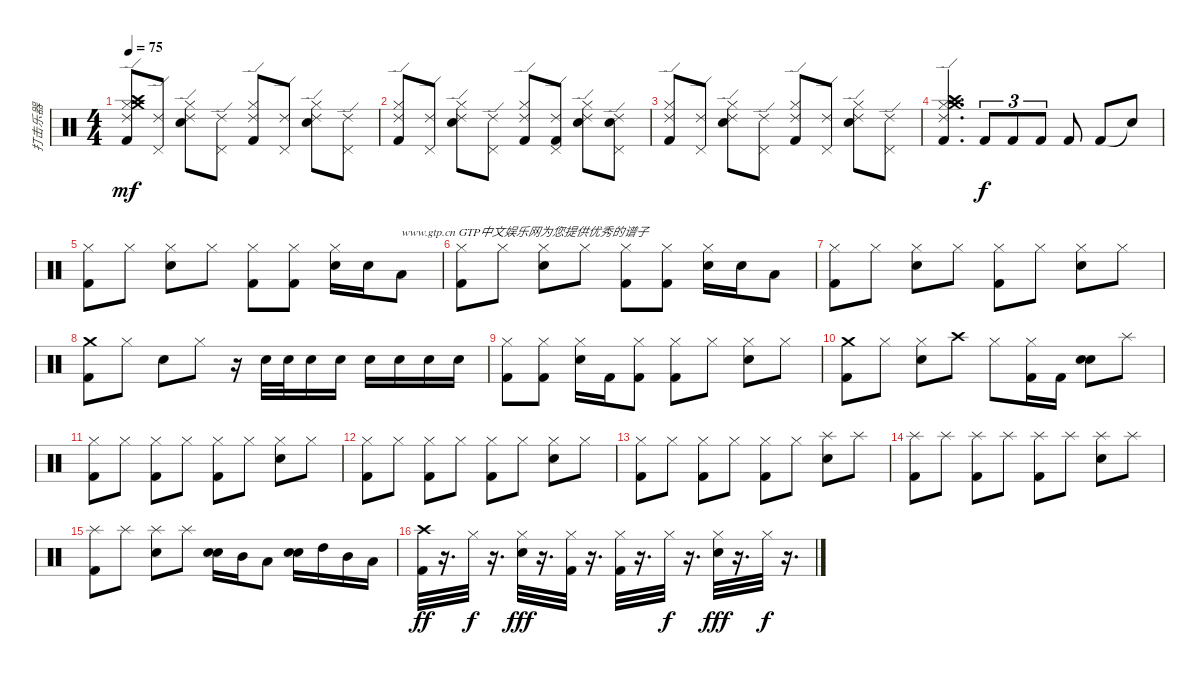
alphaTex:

\track ("打击乐器" "打击乐器") {instrument percussion}
\staff {score}
\articulation defaults
\ts (4 4)
\tempo 75
\clef neutral
\ks c
("Kick (hit) 2" "Hi-Hat (closed)" "Crash medium (hit)" "Crash high (hit)" "Ride (edge) 2").8{dy mf} ("Pedal Hi-Hat (hit)" "Ride (edge) 2").8 ("Electric Snare (hit)" "Hi-Hat (closed)" "Ride (edge) 2").8 ("Pedal Hi-Hat (hit)" "Ride (edge) 2").8 ("Kick (hit) 2" "Hi-Hat (closed)" "Ride (edge) 2").8 ("Pedal Hi-Hat (hit)" "Ride (edge) 2").8 ("Electric Snare (hit)" "Hi-Hat (closed)" "Ride (edge) 2").8 ("Pedal Hi-Hat (hit)" "Ride (edge) 2").8 |
("Kick (hit) 2" "Hi-Hat (closed)" "Ride (edge) 2").8 ("Pedal Hi-Hat (hit)" "Ride (edge) 2").8 ("Electric Snare (hit)" "Hi-Hat (closed)" "Ride (edge) 2").8 ("Pedal Hi-Hat (hit)" "Ride (edge) 2").8 ("Kick (hit) 2" "Hi-Hat (closed)" "Ride (edge) 2").8 ("Kick (hit) 2" "Pedal Hi-Hat (hit)" "Ride (edge) 2").8 ("Electric Snare (hit)" "Hi-Hat (closed)" "Ride (edge) 2").8 ("Electric Snare (hit)" "Pedal Hi-Hat (hit)" "Ride (edge) 2").8 |
("Kick (hit) 2" "Hi-Hat (closed)" "Ride (edge) 2").8 ("Pedal Hi-Hat (hit)" "Ride (edge) 2").8 ("Electric Snare (hit)" "Hi-Hat (closed)" "Ride (edge) 2").8 ("Pedal Hi-Hat (hit)" "Ride (edge) 2").8 ("Kick (hit) 2" "Hi-Hat (closed)" "Ride (edge) 2").8 ("Pedal Hi-Hat (hit)" "Ride (edge) 2").8 ("Electric Snare (hit)" "Hi-Hat (closed)" "Ride (edge) 2").8 ("Pedal Hi-Hat (hit)" "Ride (edge) 2").8 |
("Kick (hit) 2" "Hi-Hat (closed)" "Crash medium (hit)" "Crash high (hit)" "Ride (edge) 2").4{d} "Kick (hit) 2".8{tu (3 2) dy f} "Kick (hit) 2".8{tu (3 2)} "Kick (hit) 2".8{tu (3 2)} "Kick (hit) 2".8 "Kick (hit) 2".8 "Snare (hit)"{t}.8 |
("Hi-Hat (closed)" "Kick (hit) 2").8 "Hi-Hat (closed)".8 ("Hi-Hat (closed)" "Snare (hit) 2").8 "Hi-Hat (closed)".8 ("Hi-Hat (closed)" "Kick (hit) 2").8 ("Hi-Hat (closed)" "Kick (hit) 2").8 ("Hi-Hat (closed)" "Snare (hit) 2").16 "Snare (hit) 2".16 "Low Tom (hit)".8{txt "www.gtp.cn GTP中文娱乐网为您提供优秀的谱子"} |
("Hi-Hat (closed)" "Kick (hit) 2").8 "Hi-Hat (closed)".8 ("Hi-Hat (closed)" "Snare (hit) 2").8 "Hi-Hat (closed)".8 ("Hi-Hat (closed)" "Kick (hit) 2").8 ("Hi-Hat (closed)" "Kick (hit) 2").8 ("Hi-Hat (closed)" "Snare (hit) 2").16 "Snare (hit) 2".16 "Low Tom (hit)".8 |
("Hi-Hat (closed)" "Kick (hit) 2").8 "Hi-Hat (closed)".8 ("Hi-Hat (closed)" "Snare (hit) 2").8 "Hi-Hat (closed)".8 ("Hi-Hat (closed)" "Kick (hit) 2").8 "Hi-Hat (closed)".8 ("Hi-Hat (closed)" "Snare (hit) 2").8 "Hi-Hat (closed)".8 |
("Crash medium (hit)" "Kick (hit) 2").8 "Hi-Hat (closed)".8 "Snare (hit) 2".8 "Hi-Hat (closed)".8 r.16 "Snare (hit) 2".32 "Snare (hit) 2".32 "Snare (hit) 2".16 "Snare (hit) 2".16 "Snare (hit) 2".16 "Snare (hit) 2".16 "Snare (hit) 2".16 "Snare (hit) 2".16 |
("Hi-Hat (closed)" "Kick (hit) 2").8 ("Hi-Hat (closed)" "Kick (hit) 2").8 ("Hi-Hat (closed)" "Snare (hit) 2").16 "Kick (hit) 2".16 ("Hi-Hat (closed)" "Kick (hit) 2").8 ("Hi-Hat (closed)" "Kick (hit) 2").8 "Hi-Hat (closed)".8 ("Hi-Hat (closed)" "Snare (hit) 2").8 "Hi-Hat (closed)".8 |
("Crash medium (hit)" "Kick (hit) 2").8 "Hi-Hat (closed)".8 ("Hi-Hat (closed)" "Snare (hit) 2").8 "Crash high (hit)".8 "Hi-Hat (closed)".8 ("Hi-Hat (closed)" "Kick (hit) 2").16 "Kick (hit) 2".16 ("Snare (hit) 2" "Snare (hit) 2").8 "Splash (hit)".8 |
("Hi-Hat (closed)" "Kick (hit) 2").8 "Hi-Hat (closed)".8 ("Hi-Hat (closed)" "Kick (hit) 2").8 "Hi-Hat (closed)".8 ("Hi-Hat (closed)" "Kick (hit) 2").8 "Hi-Hat (closed)".8 ("Hi-Hat (closed)" "Snare (hit) 2").8 "Hi-Hat (closed)".8 |
("Hi-Hat (closed)" "Kick (hit) 2").8 "Hi-Hat (closed)".8 ("Hi-Hat (closed)" "Kick (hit) 2").8 "Hi-Hat (closed)".8 ("Hi-Hat (closed)" "Kick (hit) 2").8 "Hi-Hat (closed)".8 ("Hi-Hat (closed)" "Snare (hit) 2").8 "Hi-Hat (closed)".8 |
("Hi-Hat (closed)" "Kick (hit) 2").8 "Hi-Hat (closed)".8 ("Hi-Hat (closed)" "Kick (hit) 2").8 "Hi-Hat (closed)".8 ("Hi-Hat (closed)" "Kick (hit) 2").8 "Hi-Hat (closed)".8 ("Splash (hit)" "Snare (hit) 2").8 "Splash (hit)".8 |
("Splash (hit)" "Kick (hit) 2").8 "Splash (hit)".8 ("Splash (hit)" "Kick (hit) 2").8 "Splash (hit)".8 ("Splash (hit)" "Kick (hit) 2").8 "Splash (hit)".8 ("Splash (hit)" "Snare (hit) 2").8 "Splash (hit)".8 |
("Splash (hit)" "Kick (hit) 2").8 "Splash (hit)".8 ("Splash (hit)" "Snare (hit) 2").8 "Splash (hit)".8 ("Snare (hit) 2" "Snare (hit) 2").16 "Mid Tom (hit)".16 "Low Tom (hit)".8 ("Snare (hit) 2" "Snare (hit) 2").16 "High Tom (hit)".16 "Mid Tom (hit)".16 "Low Tom (hit)".16 |
("Kick (hit) 2" "Crash high (hit)").32{dy ff} r.16{d} "Hi-Hat (closed)".32{dy f} r.16{d} ("Hi-Hat (closed)" "Electric Snare (hit)").32{dy fff} r.16{d} ("Kick (hit) 2" "Hi-Hat (closed)").32 r.16{d} ("Kick (hit) 2" "Hi-Hat (closed)").32 r.16{d} "Hi-Hat (closed)".32{dy f} r.16{d} ("Hi-Hat (closed)" "Electric Snare (hit)").32{dy fff} r.16{d} "Hi-Hat (closed)".32{dy f} r.16{d}
